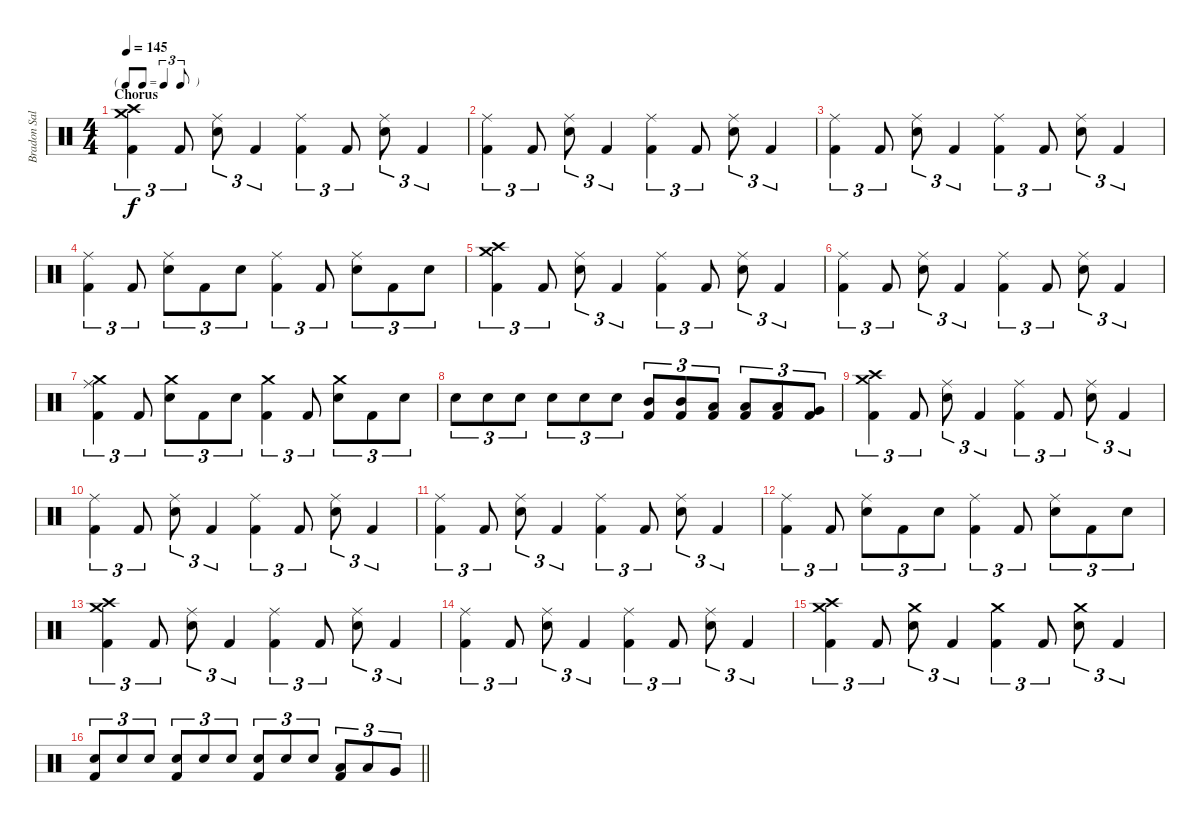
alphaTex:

\track ("Bradon Saller" "Bradon Sal") {instrument percussion}
\staff {score}
\articulation defaults
\ts (4 4)
\tf triplet8th
\section ("" "Chorus")
\tempo 145
\clef neutral
\ks c
("Crash medium (hit)" "Crash high (hit)" "Kick (hit) 2").4{tu (3 2) dy f} "Kick (hit) 2".8{tu (3 2)} ("Ride (middle)" "Electric Snare (hit)").8{tu (3 2)} "Kick (hit) 2".4{tu (3 2)} ("Ride (middle)" "Kick (hit) 2").4{tu (3 2)} "Kick (hit) 2".8{tu (3 2)} ("Ride (middle)" "Electric Snare (hit)").8{tu (3 2)} "Kick (hit) 2".4{tu (3 2)} |
("Ride (middle)" "Kick (hit) 2").4{tu (3 2)} "Kick (hit) 2".8{tu (3 2)} ("Ride (middle)" "Electric Snare (hit)").8{tu (3 2)} "Kick (hit) 2".4{tu (3 2)} ("Ride (middle)" "Kick (hit) 2").4{tu (3 2)} "Kick (hit) 2".8{tu (3 2)} ("Ride (middle)" "Electric Snare (hit)").8{tu (3 2)} "Kick (hit) 2".4{tu (3 2)} |
("Ride (middle)" "Kick (hit) 2").4{tu (3 2)} "Kick (hit) 2".8{tu (3 2)} ("Ride (middle)" "Electric Snare (hit)").8{tu (3 2)} "Kick (hit) 2".4{tu (3 2)} ("Ride (middle)" "Kick (hit) 2").4{tu (3 2)} "Kick (hit) 2".8{tu (3 2)} ("Ride (middle)" "Electric Snare (hit)").8{tu (3 2)} "Kick (hit) 2".4{tu (3 2)} |
("Ride (middle)" "Kick (hit) 2").4{tu (3 2)} "Kick (hit) 2".8{tu (3 2)} ("Ride (middle)" "Electric Snare (hit)").8{tu (3 2)} "Kick (hit) 2".8{tu (3 2)} "Electric Snare (hit)".8{tu (3 2)} ("Ride (middle)" "Kick (hit) 2").4{tu (3 2)} "Kick (hit) 2".8{tu (3 2)} ("Ride (middle)" "Electric Snare (hit)").8{tu (3 2)} "Kick (hit) 2".8{tu (3 2)} "Electric Snare (hit)".8{tu (3 2)} |
("Crash medium (hit)" "Crash high (hit)" "Kick (hit) 2").4{tu (3 2)} "Kick (hit) 2".8{tu (3 2)} ("Ride (middle)" "Electric Snare (hit)").8{tu (3 2)} "Kick (hit) 2".4{tu (3 2)} ("Ride (middle)" "Kick (hit) 2").4{tu (3 2)} "Kick (hit) 2".8{tu (3 2)} ("Ride (middle)" "Electric Snare (hit)").8{tu (3 2)} "Kick (hit) 2".4{tu (3 2)} |
("Ride (middle)" "Kick (hit) 2").4{tu (3 2)} "Kick (hit) 2".8{tu (3 2)} ("Ride (middle)" "Electric Snare (hit)").8{tu (3 2)} "Kick (hit) 2".4{tu (3 2)} ("Ride (middle)" "Kick (hit) 2").4{tu (3 2)} "Kick (hit) 2".8{tu (3 2)} ("Ride (middle)" "Electric Snare (hit)").8{tu (3 2)} "Kick (hit) 2".4{tu (3 2)} |
("Crash medium (hit)" "Ride (middle)" "Kick (hit) 2").4{tu (3 2)} "Kick (hit) 2".8{tu (3 2)} ("Crash medium (hit)" "Electric Snare (hit)").8{tu (3 2)} "Kick (hit) 2".8{tu (3 2)} "Electric Snare (hit)".8{tu (3 2)} ("Crash medium (hit)" "Kick (hit) 2").4{tu (3 2)} "Kick (hit) 2".8{tu (3 2)} ("Crash medium (hit)" "Electric Snare (hit)").8{tu (3 2)} "Kick (hit) 2".8{tu (3 2)} "Electric Snare (hit)".8{tu (3 2)} |
"Electric Snare (hit)".8{tu (3 2)} "Electric Snare (hit)".8{tu (3 2)} "Electric Snare (hit)".8{tu (3 2)} "Electric Snare (hit)".8{tu (3 2)} "Electric Snare (hit)".8{tu (3 2)} "Electric Snare (hit)".8{tu (3 2)} ("Mid Tom (hit)" "Kick (hit) 2").8{tu (3 2)} ("Mid Tom (hit)" "Kick (hit) 2").8{tu (3 2)} ("Low Tom (hit)" "Kick (hit) 2").8{tu (3 2)} ("Low Tom (hit)" "Kick (hit) 2").8{tu (3 2)} ("Low Tom (hit)" "Kick (hit) 2").8{tu (3 2)} ("Very Low Tom (hit)" "Kick (hit) 2").8{tu (3 2)} |
("Crash medium (hit)" "Crash high (hit)" "Kick (hit) 2").4{tu (3 2)} "Kick (hit) 2".8{tu (3 2)} ("Ride (middle)" "Electric Snare (hit)").8{tu (3 2)} "Kick (hit) 2".4{tu (3 2)} ("Ride (middle)" "Kick (hit) 2").4{tu (3 2)} "Kick (hit) 2".8{tu (3 2)} ("Ride (middle)" "Electric Snare (hit)").8{tu (3 2)} "Kick (hit) 2".4{tu (3 2)} |
("Ride (middle)" "Kick (hit) 2").4{tu (3 2)} "Kick (hit) 2".8{tu (3 2)} ("Ride (middle)" "Electric Snare (hit)").8{tu (3 2)} "Kick (hit) 2".4{tu (3 2)} ("Ride (middle)" "Kick (hit) 2").4{tu (3 2)} "Kick (hit) 2".8{tu (3 2)} ("Ride (middle)" "Electric Snare (hit)").8{tu (3 2)} "Kick (hit) 2".4{tu (3 2)} |
("Ride (middle)" "Kick (hit) 2").4{tu (3 2)} "Kick (hit) 2".8{tu (3 2)} ("Ride (middle)" "Electric Snare (hit)").8{tu (3 2)} "Kick (hit) 2".4{tu (3 2)} ("Ride (middle)" "Kick (hit) 2").4{tu (3 2)} "Kick (hit) 2".8{tu (3 2)} ("Ride (middle)" "Electric Snare (hit)").8{tu (3 2)} "Kick (hit) 2".4{tu (3 2)} |
("Ride (middle)" "Kick (hit) 2").4{tu (3 2)} "Kick (hit) 2".8{tu (3 2)} ("Ride (middle)" "Electric Snare (hit)").8{tu (3 2)} "Kick (hit) 2".8{tu (3 2)} "Electric Snare (hit)".8{tu (3 2)} ("Ride (middle)" "Kick (hit) 2").4{tu (3 2)} "Kick (hit) 2".8{tu (3 2)} ("Ride (middle)" "Electric Snare (hit)").8{tu (3 2)} "Kick (hit) 2".8{tu (3 2)} "Electric Snare (hit)".8{tu (3 2)} |
("Crash medium (hit)" "Crash high (hit)" "Kick (hit) 2").4{tu (3 2)} "Kick (hit) 2".8{tu (3 2)} ("Ride (middle)" "Electric Snare (hit)").8{tu (3 2)} "Kick (hit) 2".4{tu (3 2)} ("Ride (middle)" "Kick (hit) 2").4{tu (3 2)} "Kick (hit) 2".8{tu (3 2)} ("Ride (middle)" "Electric Snare (hit)").8{tu (3 2)} "Kick (hit) 2".4{tu (3 2)} |
("Ride (middle)" "Kick (hit) 2").4{tu (3 2)} "Kick (hit) 2".8{tu (3 2)} ("Ride (middle)" "Electric Snare (hit)").8{tu (3 2)} "Kick (hit) 2".4{tu (3 2)} ("Ride (middle)" "Kick (hit) 2").4{tu (3 2)} "Kick (hit) 2".8{tu (3 2)} ("Ride (middle)" "Electric Snare (hit)").8{tu (3 2)} "Kick (hit) 2".4{tu (3 2)} |
("Crash medium (hit)" "Crash high (hit)" "Kick (hit) 2").4{tu (3 2)} "Kick (hit) 2".8{tu (3 2)} ("Crash medium (hit)" "Electric Snare (hit)").8{tu (3 2)} "Kick (hit) 2".4{tu (3 2)} ("Crash medium (hit)" "Kick (hit) 2").4{tu (3 2)} "Kick (hit) 2".8{tu (3 2)} ("Crash medium (hit)" "Electric Snare (hit)").8{tu (3 2)} "Kick (hit) 2".4{tu (3 2)} |
\barLineRight lightlight
("Electric Snare (hit)" "Kick (hit) 2").8{tu (3 2)} "Electric Snare (hit)".8{tu (3 2)} "Electric Snare (hit)".8{tu (3 2)} ("Electric Snare (hit)" "Kick (hit) 2").8{tu (3 2)} "Electric Snare (hit)".8{tu (3 2)} "Electric Snare (hit)".8{tu (3 2)} ("Electric Snare (hit)" "Kick (hit) 2").8{tu (3 2)} "Electric Snare (hit)".8{tu (3 2)} "Electric Snare (hit)".8{tu (3 2)} ("Low Tom (hit)" "Kick (hit) 2").8{tu (3 2)} "Low Tom (hit)".8{tu (3 2)} "Very Low Tom (hit)".8{tu (3 2)}
